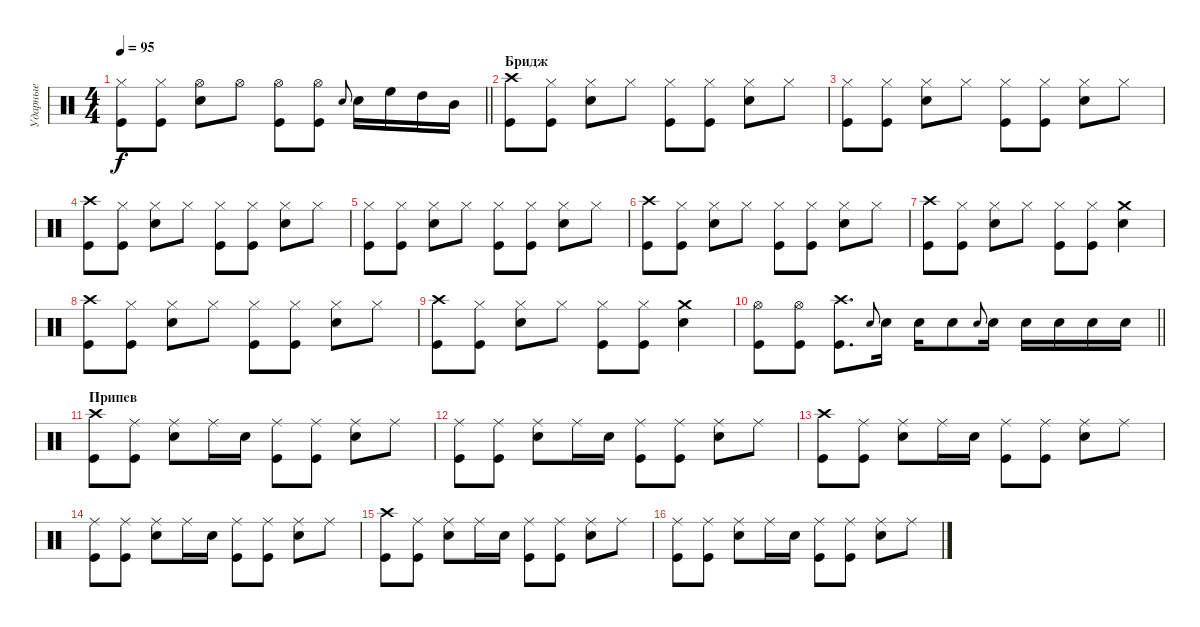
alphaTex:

\track ("Ударные" "Ударные") {instrument percussion}
\staff {score}
\articulation defaults
\ts (4 4)
\tempo 95
\clef neutral
\barLineRight lightlight
\ks c
("Hi-Hat (closed)" "Kick (hit)").8{dy f} ("Hi-Hat (closed)" "Kick (hit)").8 ("Hi-Hat (open)" "Snare (hit) 2").8 "Hi-Hat (open)".8 ("Hi-Hat (open)" "Kick (hit)").8 ("Hi-Hat (open)" "Kick (hit)").8 "Snare (hit) 2".8{gr onbeat} "Snare (hit) 2".16 "High Floor Tom (hit)".16 "High Tom (hit)".16 "Mid Tom (hit)".16 |
\section ("" "Бридж")
("Crash high (hit)" "Kick (hit)").8 ("Hi-Hat (closed)" "Kick (hit)").8 ("Hi-Hat (closed)" "Snare (hit) 2").8 "Hi-Hat (closed)".8 ("Hi-Hat (closed)" "Kick (hit)").8 ("Hi-Hat (closed)" "Kick (hit)").8 ("Hi-Hat (closed)" "Snare (hit) 2").8 "Hi-Hat (closed)".8 |
("Hi-Hat (closed)" "Kick (hit)").8 ("Hi-Hat (closed)" "Kick (hit)").8 ("Hi-Hat (closed)" "Snare (hit) 2").8 "Hi-Hat (closed)".8 ("Hi-Hat (closed)" "Kick (hit)").8 ("Hi-Hat (closed)" "Kick (hit)").8 ("Hi-Hat (closed)" "Snare (hit) 2").8 "Hi-Hat (closed)".8 |
("Crash high (hit)" "Kick (hit)").8 ("Hi-Hat (closed)" "Kick (hit)").8 ("Hi-Hat (closed)" "Snare (hit) 2").8 "Hi-Hat (closed)".8 ("Hi-Hat (closed)" "Kick (hit)").8 ("Hi-Hat (closed)" "Kick (hit)").8 ("Hi-Hat (closed)" "Snare (hit) 2").8 "Hi-Hat (closed)".8 |
("Hi-Hat (closed)" "Kick (hit)").8 ("Hi-Hat (closed)" "Kick (hit)").8 ("Hi-Hat (closed)" "Snare (hit) 2").8 "Hi-Hat (closed)".8 ("Hi-Hat (closed)" "Kick (hit)").8 ("Hi-Hat (closed)" "Kick (hit)").8 ("Hi-Hat (closed)" "Snare (hit) 2").8 "Hi-Hat (closed)".8 |
("Crash high (hit)" "Kick (hit)").8 ("Hi-Hat (closed)" "Kick (hit)").8 ("Hi-Hat (closed)" "Snare (hit) 2").8 "Hi-Hat (closed)".8 ("Hi-Hat (closed)" "Kick (hit)").8 ("Hi-Hat (closed)" "Kick (hit)").8 ("Hi-Hat (closed)" "Snare (hit) 2").8 "Hi-Hat (closed)".8 |
("Crash high (hit)" "Kick (hit)").8 ("Hi-Hat (closed)" "Kick (hit)").8 ("Hi-Hat (closed)" "Snare (hit) 2").8 "Hi-Hat (closed)".8 ("Hi-Hat (closed)" "Kick (hit)").8 ("Hi-Hat (closed)" "Kick (hit)").8 ("Crash medium (hit)" "Snare (hit) 2").4 |
("Crash high (hit)" "Kick (hit)").8 ("Hi-Hat (closed)" "Kick (hit)").8 ("Hi-Hat (closed)" "Snare (hit) 2").8 "Hi-Hat (closed)".8 ("Hi-Hat (closed)" "Kick (hit)").8 ("Hi-Hat (closed)" "Kick (hit)").8 ("Hi-Hat (closed)" "Snare (hit) 2").8 "Hi-Hat (closed)".8 |
("Crash high (hit)" "Kick (hit)").8 ("Hi-Hat (closed)" "Kick (hit)").8 ("Hi-Hat (closed)" "Snare (hit) 2").8 "Hi-Hat (closed)".8 ("Hi-Hat (closed)" "Kick (hit)").8 ("Hi-Hat (closed)" "Kick (hit)").8 ("Crash medium (hit)" "Snare (hit) 2").4 |
\barLineRight lightlight
("Hi-Hat (open)" "Kick (hit)").8 ("Hi-Hat (open)" "Kick (hit)").8 ("Crash high (hit)" "Kick (hit)").8{d} "Snare (hit) 2".8{gr onbeat} "Snare (hit) 2".16 "Snare (hit) 2".16 "Snare (hit) 2".8 "Snare (hit) 2".8{gr onbeat} "Snare (hit) 2".16 "Snare (hit) 2".16 "Snare (hit) 2".16 "Snare (hit) 2".16 "Snare (hit) 2".16 |
\section ("" "Припев")
("Crash high (hit)" "Kick (hit)").8 ("Ride (middle)" "Kick (hit)").8 ("Ride (middle)" "Snare (hit) 2").8 "Ride (middle)".16 "Snare (hit) 2".16 ("Ride (middle)" "Kick (hit)").8 ("Ride (middle)" "Kick (hit)").8 ("Ride (middle)" "Snare (hit) 2").8 "Ride (middle)".8 |
("Ride (middle)" "Kick (hit)").8 ("Ride (middle)" "Kick (hit)").8 ("Ride (middle)" "Snare (hit) 2").8 "Ride (middle)".16 "Snare (hit) 2".16 ("Ride (middle)" "Kick (hit)").8 ("Ride (middle)" "Kick (hit)").8 ("Ride (middle)" "Snare (hit) 2").8 "Ride (middle)".8 |
("Crash high (hit)" "Kick (hit)").8 ("Ride (middle)" "Kick (hit)").8 ("Ride (middle)" "Snare (hit) 2").8 "Ride (middle)".16 "Snare (hit) 2".16 ("Ride (middle)" "Kick (hit)").8 ("Ride (middle)" "Kick (hit)").8 ("Ride (middle)" "Snare (hit) 2").8 "Ride (middle)".8 |
("Ride (middle)" "Kick (hit)").8 ("Ride (middle)" "Kick (hit)").8 ("Ride (middle)" "Snare (hit) 2").8 "Ride (middle)".16 "Snare (hit) 2".16 ("Ride (middle)" "Kick (hit)").8 ("Ride (middle)" "Kick (hit)").8 ("Ride (middle)" "Snare (hit) 2").8 "Ride (middle)".8 |
("Crash high (hit)" "Kick (hit)").8 ("Ride (middle)" "Kick (hit)").8 ("Ride (middle)" "Snare (hit) 2").8 "Ride (middle)".16 "Snare (hit) 2".16 ("Ride (middle)" "Kick (hit)").8 ("Ride (middle)" "Kick (hit)").8 ("Ride (middle)" "Snare (hit) 2").8 "Ride (middle)".8 |
("Ride (middle)" "Kick (hit)").8 ("Ride (middle)" "Kick (hit)").8 ("Ride (middle)" "Snare (hit) 2").8 "Ride (middle)".16 "Snare (hit) 2".16 ("Ride (middle)" "Kick (hit)").8 ("Ride (middle)" "Kick (hit)").8 ("Ride (middle)" "Snare (hit) 2").8 "Ride (middle)".8
